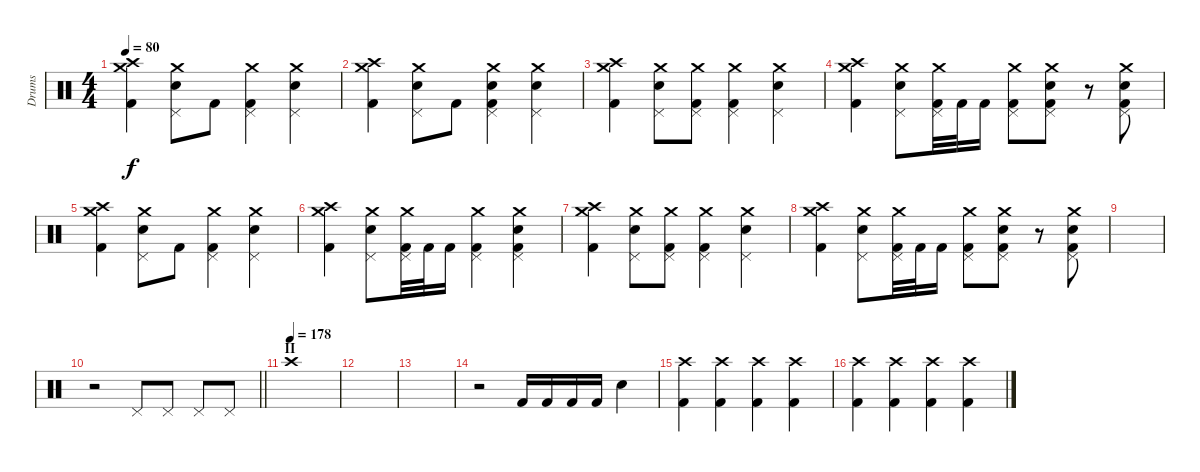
\track ("Drums" "Drums") {instrument percussion}
\staff {score}
\articulation defaults
\ts (4 4)
\tempo 80
\clef neutral
\ks c
("Crash medium (hit)" "Crash high (hit)" "Kick (hit) 2").4{dy f} ("Crash medium (hit)" "Pedal Hi-Hat (hit)" "Snare (hit) 2").8 "Kick (hit) 2".8 ("Crash medium (hit)" "Pedal Hi-Hat (hit)" "Kick (hit) 2").4 ("Crash medium (hit)" "Pedal Hi-Hat (hit)" "Snare (hit) 2").4 |
("Crash medium (hit)" "Crash high (hit)" "Kick (hit) 2").4 ("Crash medium (hit)" "Pedal Hi-Hat (hit)" "Snare (hit) 2").8 "Kick (hit) 2".8 ("Crash medium (hit)" "Pedal Hi-Hat (hit)" "Snare (hit) 2" "Kick (hit) 2").4 ("Crash medium (hit)" "Pedal Hi-Hat (hit)" "Snare (hit) 2").4 |
("Crash medium (hit)" "Crash high (hit)" "Kick (hit) 2").4 ("Crash medium (hit)" "Pedal Hi-Hat (hit)" "Snare (hit) 2").8 ("Crash medium (hit)" "Pedal Hi-Hat (hit)" "Kick (hit) 2").8 ("Crash medium (hit)" "Pedal Hi-Hat (hit)" "Kick (hit) 2").4 ("Crash medium (hit)" "Pedal Hi-Hat (hit)" "Snare (hit) 2").4 |
("Crash medium (hit)" "Crash high (hit)" "Kick (hit) 2").4 ("Crash medium (hit)" "Pedal Hi-Hat (hit)" "Snare (hit) 2").8 ("Crash medium (hit)" "Pedal Hi-Hat (hit)" "Kick (hit) 2").32 "Kick (hit) 2".32 "Kick (hit) 2".16 ("Crash medium (hit)" "Pedal Hi-Hat (hit)" "Kick (hit) 2").8 ("Crash medium (hit)" "Pedal Hi-Hat (hit)" "Snare (hit) 2" "Kick (hit) 2").8 r.8 ("Crash medium (hit)" "Pedal Hi-Hat (hit)" "Snare (hit) 2" "Kick (hit) 2").8 |
("Crash medium (hit)" "Crash high (hit)" "Kick (hit) 2").4 ("Crash medium (hit)" "Pedal Hi-Hat (hit)" "Snare (hit) 2").8 "Kick (hit) 2".8 ("Crash medium (hit)" "Pedal Hi-Hat (hit)" "Kick (hit) 2").4 ("Crash medium (hit)" "Pedal Hi-Hat (hit)" "Snare (hit) 2").4 |
("Crash medium (hit)" "Crash high (hit)" "Kick (hit) 2").4 ("Crash medium (hit)" "Pedal Hi-Hat (hit)" "Snare (hit) 2").8 ("Crash medium (hit)" "Pedal Hi-Hat (hit)" "Kick (hit) 2").32 "Kick (hit) 2".32 "Kick (hit) 2".16 ("Crash medium (hit)" "Pedal Hi-Hat (hit)" "Kick (hit) 2").4 ("Crash medium (hit)" "Pedal Hi-Hat (hit)" "Snare (hit) 2" "Kick (hit) 2").4 |
("Crash medium (hit)" "Crash high (hit)" "Kick (hit) 2").4 ("Crash medium (hit)" "Pedal Hi-Hat (hit)" "Snare (hit) 2").8 ("Crash medium (hit)" "Pedal Hi-Hat (hit)" "Kick (hit) 2").8 ("Crash medium (hit)" "Pedal Hi-Hat (hit)" "Kick (hit) 2").4 ("Crash medium (hit)" "Pedal Hi-Hat (hit)" "Snare (hit) 2").4 |
("Crash medium (hit)" "Crash high (hit)" "Kick (hit) 2").4 ("Crash medium (hit)" "Pedal Hi-Hat (hit)" "Snare (hit) 2").8 ("Crash medium (hit)" "Pedal Hi-Hat (hit)" "Kick (hit) 2").32 "Kick (hit) 2".32 "Kick (hit) 2".16 ("Crash medium (hit)" "Pedal Hi-Hat (hit)" "Kick (hit) 2").8 ("Crash medium (hit)" "Pedal Hi-Hat (hit)" "Snare (hit) 2" "Kick (hit) 2").8 r.8 ("Crash medium (hit)" "Pedal Hi-Hat (hit)" "Snare (hit) 2" "Kick (hit) 2").8 |
|
\barLineRight lightlight
r.2 "Pedal Hi-Hat (hit)".8 "Pedal Hi-Hat (hit)".8 "Pedal Hi-Hat (hit)".8 "Pedal Hi-Hat (hit)".8 |
\section ("" "II")
\tempo (178)
"Crash high (hit)".1 |
|
|
r.2 "Kick (hit) 2".16 "Kick (hit) 2".16 "Kick (hit) 2".16 "Kick (hit) 2".16 "Electric Snare (hit)".4 |
("Crash high (hit)" "Kick (hit) 2").4 ("Crash high (hit)" "Kick (hit) 2").4 ("Crash high (hit)" "Kick (hit) 2").4 ("Crash high (hit)" "Kick (hit) 2").4 |
("Crash high (hit)" "Kick (hit) 2").4 ("Crash high (hit)" "Kick (hit) 2").4 ("Crash high (hit)" "Kick (hit) 2").4 ("Crash high (hit)" "Kick (hit) 2").4
